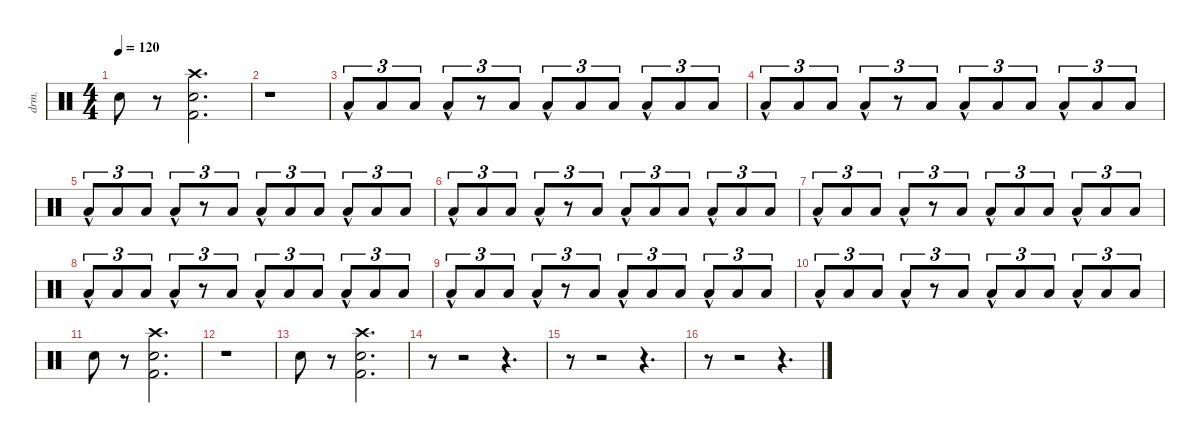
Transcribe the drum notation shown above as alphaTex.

\defaultSystemsLayout 4
\hideDynamics
\bracketExtendMode nobrackets
\otherSystemsTrackNameOrientation horizontal
\track ("Percussion" "drm.") {instrument percussion}
\staff {score}
\articulation defaults
\ts (4 4)
\tempo 120
\clef neutral
\ks c "Snare (hit) 2".8{dy f beam Down}
r.8{beam Down} ("Crash high (hit)" "Snare (hit) 2" "Kick (hit) 2").2{d beam Down} |
r.1{beam Down} |
"Low Floor Tom (hit)"{hac}.8{tu (3 2) beam Up} "Low Floor Tom (hit)".8{tu (3 2) beam Up} "Low Floor Tom (hit)".8{tu (3 2) beam Up} "Low Floor Tom (hit)"{hac}.8{tu (3 2) beam Up} r.8{tu (3 2) beam Up} "Low Floor Tom (hit)".8{tu (3 2) beam Up} "Low Floor Tom (hit)"{hac}.8{tu (3 2) beam Up} "Low Floor Tom (hit)".8{tu (3 2) beam Up} "Low Floor Tom (hit)".8{tu (3 2) beam Up} "Low Floor Tom (hit)"{hac}.8{tu (3 2) beam Up} "Low Floor Tom (hit)".8{tu (3 2) beam Up} "Low Floor Tom (hit)".8{tu (3 2) beam Up} |
"Low Floor Tom (hit)"{hac}.8{tu (3 2) beam Up} "Low Floor Tom (hit)".8{tu (3 2) beam Up} "Low Floor Tom (hit)".8{tu (3 2) beam Up} "Low Floor Tom (hit)"{hac}.8{tu (3 2) beam Up} r.8{tu (3 2) beam Up} "Low Floor Tom (hit)".8{tu (3 2) beam Up} "Low Floor Tom (hit)"{hac}.8{tu (3 2) beam Up} "Low Floor Tom (hit)".8{tu (3 2) beam Up} "Low Floor Tom (hit)".8{tu (3 2) beam Up} "Low Floor Tom (hit)"{hac}.8{tu (3 2) beam Up} "Low Floor Tom (hit)".8{tu (3 2) beam Up} "Low Floor Tom (hit)".8{tu (3 2) beam Up} |
"Low Floor Tom (hit)"{hac}.8{tu (3 2) beam Up} "Low Floor Tom (hit)".8{tu (3 2) beam Up} "Low Floor Tom (hit)".8{tu (3 2) beam Up} "Low Floor Tom (hit)"{hac}.8{tu (3 2) beam Up} r.8{tu (3 2) beam Up} "Low Floor Tom (hit)".8{tu (3 2) beam Up} "Low Floor Tom (hit)"{hac}.8{tu (3 2) beam Up} "Low Floor Tom (hit)".8{tu (3 2) beam Up} "Low Floor Tom (hit)".8{tu (3 2) beam Up} "Low Floor Tom (hit)"{hac}.8{tu (3 2) beam Up} "Low Floor Tom (hit)".8{tu (3 2) beam Up} "Low Floor Tom (hit)".8{tu (3 2) beam Up} |
"Low Floor Tom (hit)"{hac}.8{tu (3 2) beam Up} "Low Floor Tom (hit)".8{tu (3 2) beam Up} "Low Floor Tom (hit)".8{tu (3 2) beam Up} "Low Floor Tom (hit)"{hac}.8{tu (3 2) beam Up} r.8{tu (3 2) beam Up} "Low Floor Tom (hit)".8{tu (3 2) beam Up} "Low Floor Tom (hit)"{hac}.8{tu (3 2) beam Up} "Low Floor Tom (hit)".8{tu (3 2) beam Up} "Low Floor Tom (hit)".8{tu (3 2) beam Up} "Low Floor Tom (hit)"{hac}.8{tu (3 2) beam Up} "Low Floor Tom (hit)".8{tu (3 2) beam Up} "Low Floor Tom (hit)".8{tu (3 2) beam Up} |
"Low Floor Tom (hit)"{hac}.8{tu (3 2) beam Up} "Low Floor Tom (hit)".8{tu (3 2) beam Up} "Low Floor Tom (hit)".8{tu (3 2) beam Up} "Low Floor Tom (hit)"{hac}.8{tu (3 2) beam Up} r.8{tu (3 2) beam Up} "Low Floor Tom (hit)".8{tu (3 2) beam Up} "Low Floor Tom (hit)"{hac}.8{tu (3 2) beam Up} "Low Floor Tom (hit)".8{tu (3 2) beam Up} "Low Floor Tom (hit)".8{tu (3 2) beam Up} "Low Floor Tom (hit)"{hac}.8{tu (3 2) beam Up} "Low Floor Tom (hit)".8{tu (3 2) beam Up} "Low Floor Tom (hit)".8{tu (3 2) beam Up} |
"Low Floor Tom (hit)"{hac}.8{tu (3 2) beam Up} "Low Floor Tom (hit)".8{tu (3 2) beam Up} "Low Floor Tom (hit)".8{tu (3 2) beam Up} "Low Floor Tom (hit)"{hac}.8{tu (3 2) beam Up} r.8{tu (3 2) beam Up} "Low Floor Tom (hit)".8{tu (3 2) beam Up} "Low Floor Tom (hit)"{hac}.8{tu (3 2) beam Up} "Low Floor Tom (hit)".8{tu (3 2) beam Up} "Low Floor Tom (hit)".8{tu (3 2) beam Up} "Low Floor Tom (hit)"{hac}.8{tu (3 2) beam Up} "Low Floor Tom (hit)".8{tu (3 2) beam Up} "Low Floor Tom (hit)".8{tu (3 2) beam Up} |
"Low Floor Tom (hit)"{hac}.8{tu (3 2) beam Up} "Low Floor Tom (hit)".8{tu (3 2) beam Up} "Low Floor Tom (hit)".8{tu (3 2) beam Up} "Low Floor Tom (hit)"{hac}.8{tu (3 2) beam Up} r.8{tu (3 2) beam Up} "Low Floor Tom (hit)".8{tu (3 2) beam Up} "Low Floor Tom (hit)"{hac}.8{tu (3 2) beam Up} "Low Floor Tom (hit)".8{tu (3 2) beam Up} "Low Floor Tom (hit)".8{tu (3 2) beam Up} "Low Floor Tom (hit)"{hac}.8{tu (3 2) beam Up} "Low Floor Tom (hit)".8{tu (3 2) beam Up} "Low Floor Tom (hit)".8{tu (3 2) beam Up} |
"Low Floor Tom (hit)"{hac}.8{tu (3 2) beam Up} "Low Floor Tom (hit)".8{tu (3 2) beam Up} "Low Floor Tom (hit)".8{tu (3 2) beam Up} "Low Floor Tom (hit)"{hac}.8{tu (3 2) beam Up} r.8{tu (3 2) beam Up} "Low Floor Tom (hit)".8{tu (3 2) beam Up} "Low Floor Tom (hit)"{hac}.8{tu (3 2) beam Up} "Low Floor Tom (hit)".8{tu (3 2) beam Up} "Low Floor Tom (hit)".8{tu (3 2) beam Up} "Low Floor Tom (hit)"{hac}.8{tu (3 2) beam Up} "Low Floor Tom (hit)".8{tu (3 2) beam Up} "Low Floor Tom (hit)".8{tu (3 2) beam Up} |
"Snare (hit) 2".8{beam Down} r.8{beam Down} ("Crash high (hit)" "Snare (hit) 2" "Kick (hit) 2").2{d beam Down} |
r.1{beam Down} |
"Snare (hit) 2".8{beam Down} r.8{beam Down} ("Crash high (hit)" "Snare (hit) 2" "Kick (hit) 2").2{d beam Down} |
r.8{beam Down} r.2{beam Down} r.4{d beam Down} |
r.8{beam Down} r.2{beam Down} r.4{d beam Down} |
r.8{beam Down} r.2{beam Down} r.4{d beam Down}
